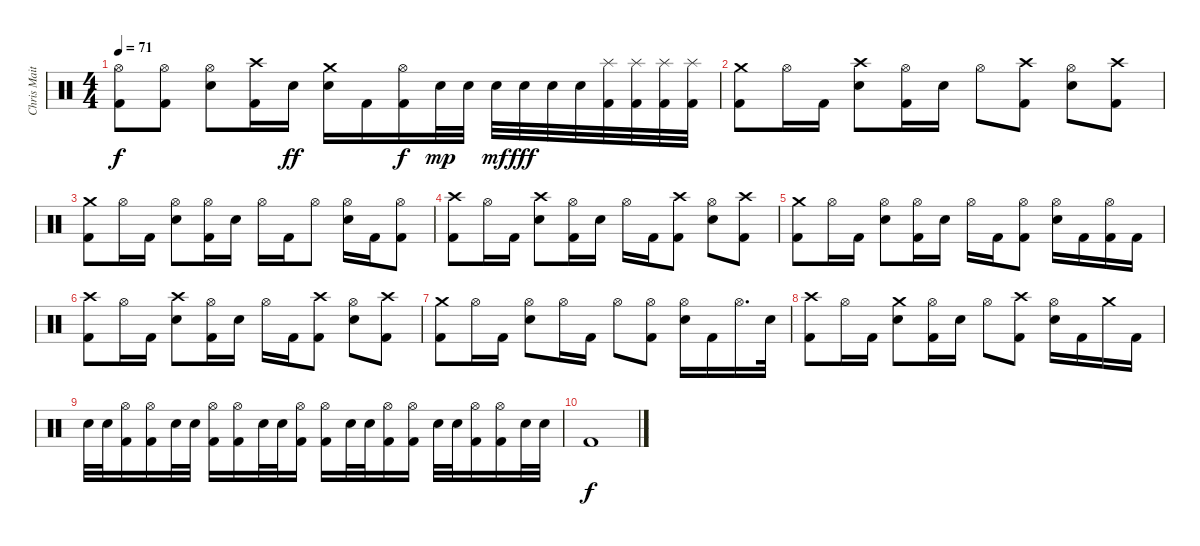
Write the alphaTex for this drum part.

\track ("Chris Maitland" "Chris Mait") {instrument percussion}
\staff {score}
\articulation defaults
\ts (4 4)
\tempo 71
\clef neutral
\ks c
("Hi-Hat (open)" "Kick (hit) 2").8{dy f} ("Hi-Hat (open)" "Kick (hit) 2").8 ("Hi-Hat (open)" "Snare (hit) 2").8 ("Crash high (hit)" "Kick (hit) 2").16 "Snare (hit) 2".16{dy ff} ("Crash medium (hit)" "Snare (hit) 2").16 "Kick (hit) 2".16 ("Hi-Hat (open)" "Kick (hit) 2").16{dy f} "Snare (hit) 2".32{dy mp} "Snare (hit) 2".32 "Snare (hit) 2".32{dy mf} "Snare (hit) 2".32{dy fff} "Snare (hit) 2".32 "Snare (hit) 2".32 ("Splash (hit)" "Kick (hit) 2").32 ("Splash (hit)" "Kick (hit) 2").32 ("Splash (hit)" "Kick (hit) 2").32 ("Splash (hit)" "Kick (hit) 2").32 |
("Crash medium (hit)" "Kick (hit) 2").8 "Hi-Hat (open)".16 "Kick (hit) 2".16 ("Crash high (hit)" "Snare (hit) 2").8 ("Hi-Hat (open)" "Kick (hit) 2").16 "Snare (hit) 2".16 "Hi-Hat (open)".8 ("Crash high (hit)" "Kick (hit) 2").8 ("Hi-Hat (open)" "Snare (hit) 2").8 ("Crash high (hit)" "Kick (hit) 2").8 |
("Crash medium (hit)" "Kick (hit) 2").8 "Hi-Hat (open)".16 "Kick (hit) 2".16 ("Hi-Hat (open)" "Snare (hit) 2").8 ("Hi-Hat (open)" "Kick (hit) 2").16 "Snare (hit) 2".16 "Hi-Hat (open)".16 "Kick (hit) 2".16 "Hi-Hat (open)".8 ("Hi-Hat (open)" "Snare (hit) 2").16 "Kick (hit) 2".16 ("Hi-Hat (open)" "Kick (hit) 2").8 |
("Crash high (hit)" "Kick (hit) 2").8 "Hi-Hat (open)".16 "Kick (hit) 2".16 ("Crash high (hit)" "Snare (hit) 2").8 ("Hi-Hat (open)" "Kick (hit) 2").16 "Snare (hit) 2".16 "Hi-Hat (open)".16 "Kick (hit) 2".16 ("Crash high (hit)" "Kick (hit) 2").8 ("Hi-Hat (open)" "Snare (hit) 2").8 ("Crash high (hit)" "Kick (hit) 2").8 |
("Crash medium (hit)" "Kick (hit) 2").8 "Hi-Hat (open)".16 "Kick (hit) 2".16 ("Hi-Hat (open)" "Snare (hit) 2").8 ("Hi-Hat (open)" "Kick (hit) 2").16 "Snare (hit) 2".16 "Hi-Hat (open)".16 "Kick (hit) 2".16 ("Hi-Hat (open)" "Kick (hit) 2").8 ("Hi-Hat (open)" "Snare (hit) 2").16 "Kick (hit) 2".16 ("Hi-Hat (open)" "Kick (hit) 2").16 "Kick (hit) 2".16 |
("Crash high (hit)" "Kick (hit) 2").8 "Hi-Hat (open)".16 "Kick (hit) 2".16 ("Crash high (hit)" "Snare (hit) 2").8 ("Hi-Hat (open)" "Kick (hit) 2").16 "Snare (hit) 2".16 "Hi-Hat (open)".16 "Kick (hit) 2".16 ("Crash high (hit)" "Kick (hit) 2").8 ("Hi-Hat (open)" "Snare (hit) 2").8 ("Crash high (hit)" "Kick (hit) 2").8 |
("Crash medium (hit)" "Kick (hit) 2").8 "Hi-Hat (open)".16 "Kick (hit) 2".16 ("Hi-Hat (open)" "Snare (hit) 2").8 "Hi-Hat (open)".16 "Kick (hit) 2".16 "Hi-Hat (open)".8 ("Hi-Hat (open)" "Kick (hit) 2").8 ("Hi-Hat (open)" "Snare (hit) 2").16 "Kick (hit) 2".16 "Hi-Hat (open)".16{d} "Snare (hit) 2".32 |
("Crash high (hit)" "Kick (hit) 2").8 "Hi-Hat (open)".16 "Kick (hit) 2".16 ("Crash medium (hit)" "Snare (hit) 2").8 ("Hi-Hat (open)" "Kick (hit) 2").16 "Snare (hit) 2".16 "Hi-Hat (open)".8 ("Crash high (hit)" "Kick (hit) 2").8 ("Hi-Hat (open)" "Snare (hit) 2").16 "Kick (hit) 2".16 "Crash medium (hit)".16 "Kick (hit) 2".16 |
"Snare (hit) 2".32 "Snare (hit) 2".32 ("Hi-Hat (open)" "Kick (hit) 2").16 ("Hi-Hat (open)" "Kick (hit) 2").16 "Snare (hit) 2".32 "Snare (hit) 2".32 ("Hi-Hat (open)" "Kick (hit) 2").16 ("Hi-Hat (open)" "Kick (hit) 2").16 "Snare (hit) 2".32 "Snare (hit) 2".32 ("Hi-Hat (open)" "Kick (hit) 2").16 ("Hi-Hat (open)" "Kick (hit) 2").16 "Snare (hit) 2".32 "Snare (hit) 2".32 ("Hi-Hat (open)" "Kick (hit) 2").16 ("Hi-Hat (open)" "Kick (hit) 2").16 "Snare (hit) 2".32 "Snare (hit) 2".32 ("Hi-Hat (open)" "Kick (hit) 2").16 ("Hi-Hat (open)" "Kick (hit) 2").16 "Snare (hit) 2".32 "Snare (hit) 2".32 |
"Kick (hit) 2".1{dy f}
